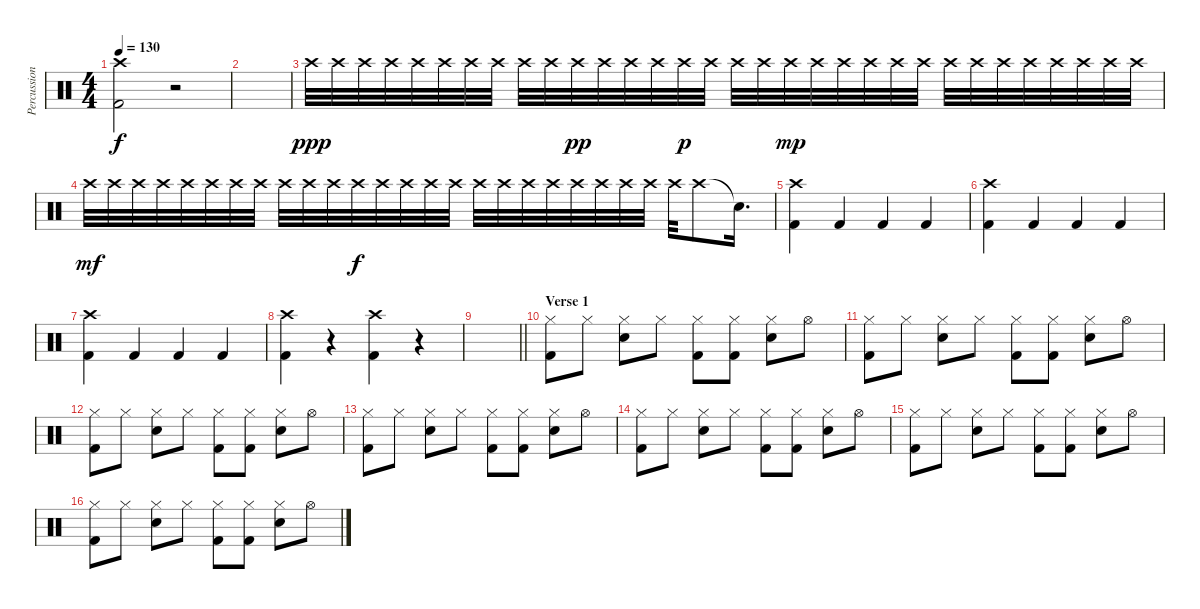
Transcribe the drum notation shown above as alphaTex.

\track ("Percussion" "Percussion") {instrument percussion}
\staff {score}
\articulation defaults
\ts (4 4)
\tempo 130
\clef neutral
\ks c
("Crash high (hit)" "Kick (hit) 2").2{dy f} r.2 |
|
"Crash high (hit)".32{dy ppp} "Crash high (hit)".32 "Crash high (hit)".32 "Crash high (hit)".32 "Crash high (hit)".32 "Crash high (hit)".32 "Crash high (hit)".32 "Crash high (hit)".32 "Crash high (hit)".32 "Crash high (hit)".32 "Crash high (hit)".32{dy pp} "Crash high (hit)".32 "Crash high (hit)".32 "Crash high (hit)".32 "Crash high (hit)".32{dy p} "Crash high (hit)".32 "Crash high (hit)".32 "Crash high (hit)".32 "Crash high (hit)".32{dy mp} "Crash high (hit)".32 "Crash high (hit)".32 "Crash high (hit)".32 "Crash high (hit)".32 "Crash high (hit)".32 "Crash high (hit)".32 "Crash high (hit)".32 "Crash high (hit)".32 "Crash high (hit)".32 "Crash high (hit)".32 "Crash high (hit)".32 "Crash high (hit)".32 "Crash high (hit)".32 |
"Crash high (hit)".32{dy mf} "Crash high (hit)".32 "Crash high (hit)".32 "Crash high (hit)".32 "Crash high (hit)".32 "Crash high (hit)".32 "Crash high (hit)".32 "Crash high (hit)".32 "Crash high (hit)".32 "Crash high (hit)".32 "Crash high (hit)".32 "Crash high (hit)".32{dy f} "Crash high (hit)".32 "Crash high (hit)".32 "Crash high (hit)".32 "Crash high (hit)".32 "Crash high (hit)".32 "Crash high (hit)".32 "Crash high (hit)".32 "Crash high (hit)".32 "Crash high (hit)".32 "Crash high (hit)".32 "Crash high (hit)".32 "Crash high (hit)".32 "Crash high (hit)".32 "Crash high (hit)".8 "Snare (hit)"{t}.16{d} |
("Crash high (hit)" "Kick (hit) 2").4 "Kick (hit) 2".4 "Kick (hit) 2".4 "Kick (hit) 2".4 |
("Crash high (hit)" "Kick (hit) 2").4 "Kick (hit) 2".4 "Kick (hit) 2".4 "Kick (hit) 2".4 |
("Crash high (hit)" "Kick (hit) 2").4 "Kick (hit) 2".4 "Kick (hit) 2".4 "Kick (hit) 2".4 |
("Crash high (hit)" "Kick (hit) 2").4 r.4 ("Crash high (hit)" "Kick (hit) 2").4 r.4 |
\barLineRight lightlight
|
\section ("" "Verse 1")
("Hi-Hat (closed)" "Kick (hit) 2").8 "Hi-Hat (closed)".8 ("Hi-Hat (closed)" "Snare (hit) 2").8 "Hi-Hat (closed)".8 ("Hi-Hat (closed)" "Kick (hit) 2").8 ("Hi-Hat (closed)" "Kick (hit) 2").8 ("Hi-Hat (closed)" "Snare (hit) 2").8 "Hi-Hat (open)".8 |
("Hi-Hat (closed)" "Kick (hit) 2").8 "Hi-Hat (closed)".8 ("Hi-Hat (closed)" "Snare (hit) 2").8 "Hi-Hat (closed)".8 ("Hi-Hat (closed)" "Kick (hit) 2").8 ("Hi-Hat (closed)" "Kick (hit) 2").8 ("Hi-Hat (closed)" "Snare (hit) 2").8 "Hi-Hat (open)".8 |
("Hi-Hat (closed)" "Kick (hit) 2").8 "Hi-Hat (closed)".8 ("Hi-Hat (closed)" "Snare (hit) 2").8 "Hi-Hat (closed)".8 ("Hi-Hat (closed)" "Kick (hit) 2").8 ("Hi-Hat (closed)" "Kick (hit) 2").8 ("Hi-Hat (closed)" "Snare (hit) 2").8 "Hi-Hat (open)".8 |
("Hi-Hat (closed)" "Kick (hit) 2").8 "Hi-Hat (closed)".8 ("Hi-Hat (closed)" "Snare (hit) 2").8 "Hi-Hat (closed)".8 ("Hi-Hat (closed)" "Kick (hit) 2").8 ("Hi-Hat (closed)" "Kick (hit) 2").8 ("Hi-Hat (closed)" "Snare (hit) 2").8 "Hi-Hat (open)".8 |
("Hi-Hat (closed)" "Kick (hit) 2").8 "Hi-Hat (closed)".8 ("Hi-Hat (closed)" "Snare (hit) 2").8 "Hi-Hat (closed)".8 ("Hi-Hat (closed)" "Kick (hit) 2").8 ("Hi-Hat (closed)" "Kick (hit) 2").8 ("Hi-Hat (closed)" "Snare (hit) 2").8 "Hi-Hat (open)".8 |
("Hi-Hat (closed)" "Kick (hit) 2").8 "Hi-Hat (closed)".8 ("Hi-Hat (closed)" "Snare (hit) 2").8 "Hi-Hat (closed)".8 ("Hi-Hat (closed)" "Kick (hit) 2").8 ("Hi-Hat (closed)" "Kick (hit) 2").8 ("Hi-Hat (closed)" "Snare (hit) 2").8 "Hi-Hat (open)".8 |
("Hi-Hat (closed)" "Kick (hit) 2").8 "Hi-Hat (closed)".8 ("Hi-Hat (closed)" "Snare (hit) 2").8 "Hi-Hat (closed)".8 ("Hi-Hat (closed)" "Kick (hit) 2").8 ("Hi-Hat (closed)" "Kick (hit) 2").8 ("Hi-Hat (closed)" "Snare (hit) 2").8 "Hi-Hat (open)".8
